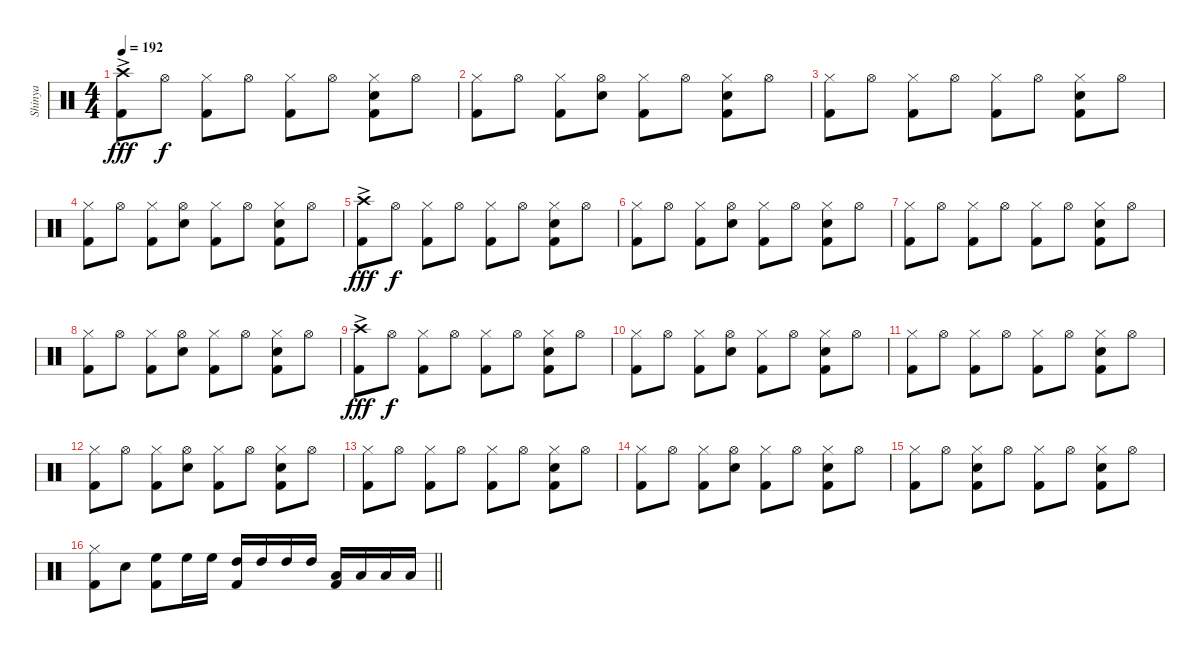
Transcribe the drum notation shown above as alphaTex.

\track ("Shinya" "Shinya") {instrument percussion}
\staff {score}
\articulation defaults
\ts (4 4)
\tempo 192
\clef neutral
\ks c
("Crash high (hit)"{ac} "Kick (hit) 2").8{dy fff} "Hi-Hat (open)".8{dy f} ("Hi-Hat (closed)" "Kick (hit) 2").8 "Hi-Hat (open)".8 ("Hi-Hat (closed)" "Kick (hit) 2").8 "Hi-Hat (open)".8 ("Hi-Hat (closed)" "Snare (hit) 2" "Kick (hit) 2").8 "Hi-Hat (open)".8 |
("Hi-Hat (closed)" "Kick (hit) 2").8 "Hi-Hat (open)".8 ("Hi-Hat (closed)" "Kick (hit) 2").8 ("Hi-Hat (open)" "Snare (hit) 2").8 ("Hi-Hat (closed)" "Kick (hit) 2").8 "Hi-Hat (open)".8 ("Hi-Hat (closed)" "Snare (hit) 2" "Kick (hit) 2").8 "Hi-Hat (open)".8 |
("Hi-Hat (closed)" "Kick (hit) 2").8 "Hi-Hat (open)".8 ("Hi-Hat (closed)" "Kick (hit) 2").8 "Hi-Hat (open)".8 ("Hi-Hat (closed)" "Kick (hit) 2").8 "Hi-Hat (open)".8 ("Hi-Hat (closed)" "Snare (hit) 2" "Kick (hit) 2").8 "Hi-Hat (open)".8 |
("Hi-Hat (closed)" "Kick (hit) 2").8 "Hi-Hat (open)".8 ("Hi-Hat (closed)" "Kick (hit) 2").8 ("Hi-Hat (open)" "Snare (hit) 2").8 ("Hi-Hat (closed)" "Kick (hit) 2").8 "Hi-Hat (open)".8 ("Hi-Hat (closed)" "Snare (hit) 2" "Kick (hit) 2").8 "Hi-Hat (open)".8 |
("Crash high (hit)"{ac} "Kick (hit) 2").8{dy fff} "Hi-Hat (open)".8{dy f} ("Hi-Hat (closed)" "Kick (hit) 2").8 "Hi-Hat (open)".8 ("Hi-Hat (closed)" "Kick (hit) 2").8 "Hi-Hat (open)".8 ("Hi-Hat (closed)" "Snare (hit) 2" "Kick (hit) 2").8 "Hi-Hat (open)".8 |
("Hi-Hat (closed)" "Kick (hit) 2").8 "Hi-Hat (open)".8 ("Hi-Hat (closed)" "Kick (hit) 2").8 ("Hi-Hat (open)" "Snare (hit) 2").8 ("Hi-Hat (closed)" "Kick (hit) 2").8 "Hi-Hat (open)".8 ("Hi-Hat (closed)" "Snare (hit) 2" "Kick (hit) 2").8 "Hi-Hat (open)".8 |
("Hi-Hat (closed)" "Kick (hit) 2").8 "Hi-Hat (open)".8 ("Hi-Hat (closed)" "Kick (hit) 2").8 "Hi-Hat (open)".8 ("Hi-Hat (closed)" "Kick (hit) 2").8 "Hi-Hat (open)".8 ("Hi-Hat (closed)" "Snare (hit) 2" "Kick (hit) 2").8 "Hi-Hat (open)".8 |
("Hi-Hat (closed)" "Kick (hit) 2").8 "Hi-Hat (open)".8 ("Hi-Hat (closed)" "Kick (hit) 2").8 ("Hi-Hat (open)" "Snare (hit) 2").8 ("Hi-Hat (closed)" "Kick (hit) 2").8 "Hi-Hat (open)".8 ("Hi-Hat (closed)" "Snare (hit) 2" "Kick (hit) 2").8 "Hi-Hat (open)".8 |
("Crash high (hit)"{ac} "Kick (hit) 2").8{dy fff} "Hi-Hat (open)".8{dy f} ("Hi-Hat (closed)" "Kick (hit) 2").8 "Hi-Hat (open)".8 ("Hi-Hat (closed)" "Kick (hit) 2").8 "Hi-Hat (open)".8 ("Hi-Hat (closed)" "Snare (hit) 2" "Kick (hit) 2").8 "Hi-Hat (open)".8 |
("Hi-Hat (closed)" "Kick (hit) 2").8 "Hi-Hat (open)".8 ("Hi-Hat (closed)" "Kick (hit) 2").8 ("Hi-Hat (open)" "Snare (hit) 2").8 ("Hi-Hat (closed)" "Kick (hit) 2").8 "Hi-Hat (open)".8 ("Hi-Hat (closed)" "Snare (hit) 2" "Kick (hit) 2").8 "Hi-Hat (open)".8 |
("Hi-Hat (closed)" "Kick (hit) 2").8 "Hi-Hat (open)".8 ("Hi-Hat (closed)" "Kick (hit) 2").8 "Hi-Hat (open)".8 ("Hi-Hat (closed)" "Kick (hit) 2").8 "Hi-Hat (open)".8 ("Hi-Hat (closed)" "Snare (hit) 2" "Kick (hit) 2").8 "Hi-Hat (open)".8 |
("Hi-Hat (closed)" "Kick (hit) 2").8 "Hi-Hat (open)".8 ("Hi-Hat (closed)" "Kick (hit) 2").8 ("Hi-Hat (open)" "Snare (hit) 2").8 ("Hi-Hat (closed)" "Kick (hit) 2").8 "Hi-Hat (open)".8 ("Hi-Hat (closed)" "Snare (hit) 2" "Kick (hit) 2").8 "Hi-Hat (open)".8 |
("Hi-Hat (closed)" "Kick (hit) 2").8 "Hi-Hat (open)".8 ("Hi-Hat (closed)" "Kick (hit) 2").8 "Hi-Hat (open)".8 ("Hi-Hat (closed)" "Kick (hit) 2").8 "Hi-Hat (open)".8 ("Hi-Hat (closed)" "Snare (hit) 2" "Kick (hit) 2").8 "Hi-Hat (open)".8 |
("Hi-Hat (closed)" "Kick (hit) 2").8 "Hi-Hat (open)".8 ("Hi-Hat (closed)" "Kick (hit) 2").8 ("Hi-Hat (open)" "Snare (hit) 2").8 ("Hi-Hat (closed)" "Kick (hit) 2").8 "Hi-Hat (open)".8 ("Hi-Hat (closed)" "Snare (hit) 2" "Kick (hit) 2").8 "Hi-Hat (open)".8 |
("Hi-Hat (closed)" "Kick (hit) 2").8 "Hi-Hat (open)".8 ("Hi-Hat (closed)" "Snare (hit) 2" "Kick (hit) 2").8 "Hi-Hat (open)".8 ("Hi-Hat (closed)" "Kick (hit) 2").8 "Hi-Hat (open)".8 ("Hi-Hat (closed)" "Snare (hit) 2" "Kick (hit) 2").8 "Hi-Hat (open)".8 |
\barLineRight lightlight
("Hi-Hat (closed)" "Kick (hit) 2").8 "Snare (hit) 2".8 ("High Floor Tom (hit)" "Kick (hit) 2").8 "High Floor Tom (hit)".16 "High Floor Tom (hit)".16 ("High Tom (hit)" "Kick (hit) 2").16 "High Tom (hit)".16 "High Tom (hit)".16 "High Tom (hit)".16 ("Low Tom (hit)" "Kick (hit) 2").16 "Low Tom (hit)".16 "Low Tom (hit)".16 "Low Tom (hit)".16
